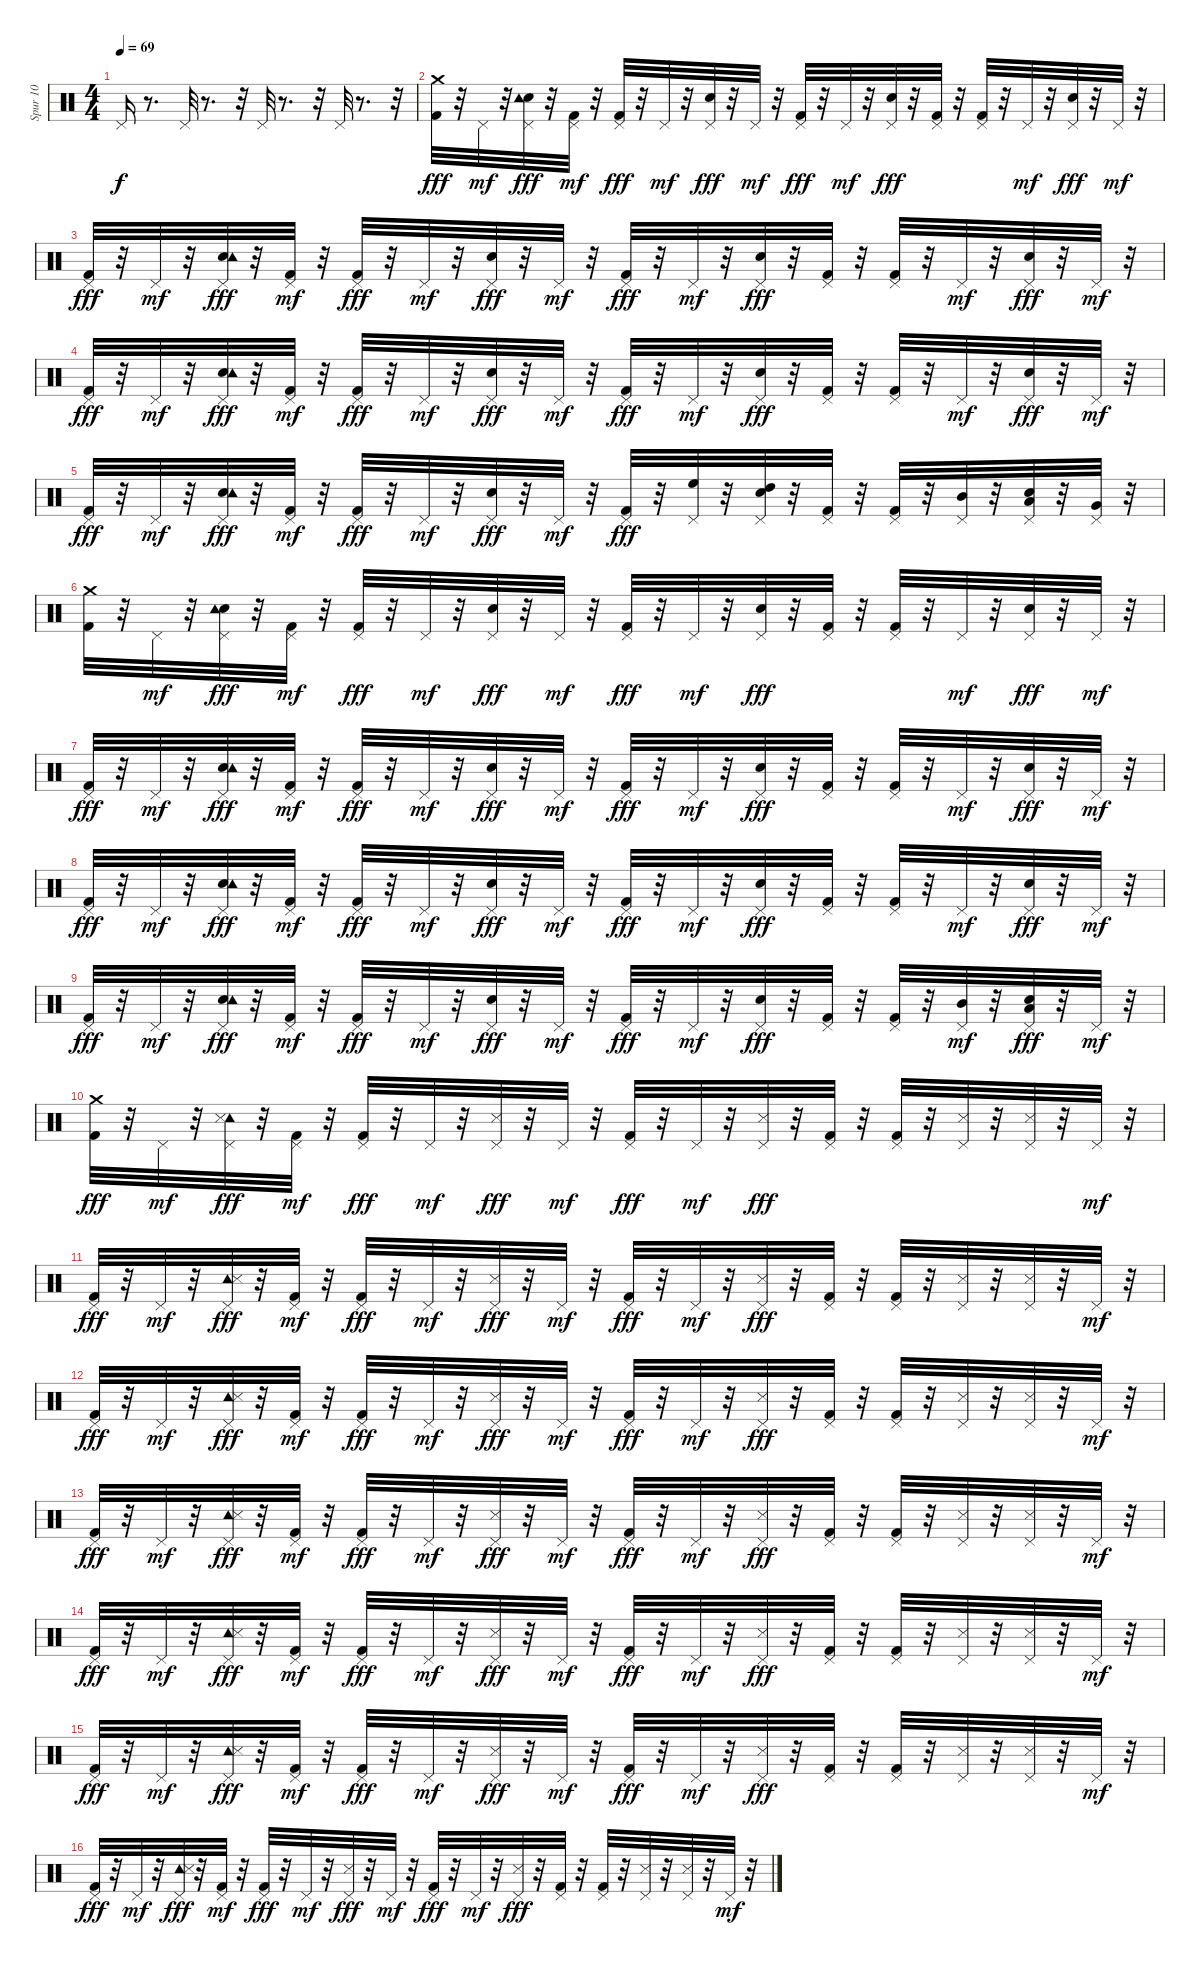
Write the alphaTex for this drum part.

\track ("Spur 10" "Spur 10") {instrument percussion}
\staff {score}
\articulation defaults
\ts (4 4)
\tempo 69
\clef neutral
\ks c "Pedal Hi-Hat (hit)".16{dy f}
r.8{d} "Pedal Hi-Hat (hit)".32 r.8{d} r.32 "Pedal Hi-Hat (hit)".32 r.8{d} r.32 "Pedal Hi-Hat (hit)".32 r.8{d} r.32 |
("Kick (hit) 2" "Crash medium (hit)").32{dy fff} r.32 "Pedal Hi-Hat (hit)".32{dy mf} r.32 ("Snare (hit) 2" "Pedal Hi-Hat (hit)" "Tambourine (hit)").32{dy fff} r.32 ("Kick (hit) 2" "Pedal Hi-Hat (hit)").32{dy mf} r.32 ("Kick (hit) 2" "Pedal Hi-Hat (hit)").32{dy fff} r.32 "Pedal Hi-Hat (hit)".32{dy mf} r.32 ("Snare (hit) 2" "Pedal Hi-Hat (hit)").32{dy fff} r.32 "Pedal Hi-Hat (hit)".32{dy mf} r.32 ("Kick (hit) 2" "Pedal Hi-Hat (hit)").32{dy fff} r.32 "Pedal Hi-Hat (hit)".32{dy mf} r.32 ("Snare (hit) 2" "Pedal Hi-Hat (hit)").32{dy fff} r.32 ("Kick (hit) 2" "Pedal Hi-Hat (hit)").32 r.32 ("Kick (hit) 2" "Pedal Hi-Hat (hit)").32 r.32 "Pedal Hi-Hat (hit)".32{dy mf} r.32 ("Snare (hit) 2" "Pedal Hi-Hat (hit)").32{dy fff} r.32 "Pedal Hi-Hat (hit)".32{dy mf} r.32 |
("Kick (hit) 2" "Pedal Hi-Hat (hit)").32{dy fff} r.32 "Pedal Hi-Hat (hit)".32{dy mf} r.32 ("Snare (hit) 2" "Pedal Hi-Hat (hit)" "Tambourine (hit)").32{dy fff} r.32 ("Kick (hit) 2" "Pedal Hi-Hat (hit)").32{dy mf} r.32 ("Kick (hit) 2" "Pedal Hi-Hat (hit)").32{dy fff} r.32 "Pedal Hi-Hat (hit)".32{dy mf} r.32 ("Snare (hit) 2" "Pedal Hi-Hat (hit)").32{dy fff} r.32 "Pedal Hi-Hat (hit)".32{dy mf} r.32 ("Kick (hit) 2" "Pedal Hi-Hat (hit)").32{dy fff} r.32 "Pedal Hi-Hat (hit)".32{dy mf} r.32 ("Snare (hit) 2" "Pedal Hi-Hat (hit)").32{dy fff} r.32 ("Kick (hit) 2" "Pedal Hi-Hat (hit)").32 r.32 ("Kick (hit) 2" "Pedal Hi-Hat (hit)").32 r.32 "Pedal Hi-Hat (hit)".32{dy mf} r.32 ("Snare (hit) 2" "Pedal Hi-Hat (hit)").32{dy fff} r.32 "Pedal Hi-Hat (hit)".32{dy mf} r.32 |
("Kick (hit) 2" "Pedal Hi-Hat (hit)").32{dy fff} r.32 "Pedal Hi-Hat (hit)".32{dy mf} r.32 ("Snare (hit) 2" "Pedal Hi-Hat (hit)" "Tambourine (hit)").32{dy fff} r.32 ("Kick (hit) 2" "Pedal Hi-Hat (hit)").32{dy mf} r.32 ("Kick (hit) 2" "Pedal Hi-Hat (hit)").32{dy fff} r.32 "Pedal Hi-Hat (hit)".32{dy mf} r.32 ("Snare (hit) 2" "Pedal Hi-Hat (hit)").32{dy fff} r.32 "Pedal Hi-Hat (hit)".32{dy mf} r.32 ("Kick (hit) 2" "Pedal Hi-Hat (hit)").32{dy fff} r.32 "Pedal Hi-Hat (hit)".32{dy mf} r.32 ("Snare (hit) 2" "Pedal Hi-Hat (hit)").32{dy fff} r.32 ("Kick (hit) 2" "Pedal Hi-Hat (hit)").32 r.32 ("Kick (hit) 2" "Pedal Hi-Hat (hit)").32 r.32 "Pedal Hi-Hat (hit)".32{dy mf} r.32 ("Snare (hit) 2" "Pedal Hi-Hat (hit)").32{dy fff} r.32 "Pedal Hi-Hat (hit)".32{dy mf} r.32 |
("Kick (hit) 2" "Pedal Hi-Hat (hit)").32{dy fff} r.32 "Pedal Hi-Hat (hit)".32{dy mf} r.32 ("Snare (hit) 2" "Pedal Hi-Hat (hit)" "Tambourine (hit)").32{dy fff} r.32 ("Kick (hit) 2" "Pedal Hi-Hat (hit)").32{dy mf} r.32 ("Kick (hit) 2" "Pedal Hi-Hat (hit)").32{dy fff} r.32 "Pedal Hi-Hat (hit)".32{dy mf} r.32 ("Snare (hit) 2" "Pedal Hi-Hat (hit)").32{dy fff} r.32 "Pedal Hi-Hat (hit)".32{dy mf} r.32 ("Kick (hit) 2" "Pedal Hi-Hat (hit)").32{dy fff} r.32 ("Pedal Hi-Hat (hit)" "High Floor Tom (hit)").32 r.32 ("Snare (hit) 2" "Pedal Hi-Hat (hit)" "High Tom (hit)").32 r.32 ("Kick (hit) 2" "Pedal Hi-Hat (hit)").32 r.32 ("Kick (hit) 2" "Pedal Hi-Hat (hit)").32 r.32 ("Pedal Hi-Hat (hit)" "Mid Tom (hit)").32 r.32 ("Snare (hit) 2" "Pedal Hi-Hat (hit)" "Low Tom (hit)").32 r.32 ("Pedal Hi-Hat (hit)" "Very Low Tom (hit)").32 r.32 |
("Kick (hit) 2" "Crash medium (hit)").32 r.32 "Pedal Hi-Hat (hit)".32{dy mf} r.32 ("Snare (hit) 2" "Pedal Hi-Hat (hit)" "Tambourine (hit)").32{dy fff} r.32 ("Kick (hit) 2" "Pedal Hi-Hat (hit)").32{dy mf} r.32 ("Kick (hit) 2" "Pedal Hi-Hat (hit)").32{dy fff} r.32 "Pedal Hi-Hat (hit)".32{dy mf} r.32 ("Snare (hit) 2" "Pedal Hi-Hat (hit)").32{dy fff} r.32 "Pedal Hi-Hat (hit)".32{dy mf} r.32 ("Kick (hit) 2" "Pedal Hi-Hat (hit)").32{dy fff} r.32 "Pedal Hi-Hat (hit)".32{dy mf} r.32 ("Snare (hit) 2" "Pedal Hi-Hat (hit)").32{dy fff} r.32 ("Kick (hit) 2" "Pedal Hi-Hat (hit)").32 r.32 ("Kick (hit) 2" "Pedal Hi-Hat (hit)").32 r.32 "Pedal Hi-Hat (hit)".32{dy mf} r.32 ("Snare (hit) 2" "Pedal Hi-Hat (hit)").32{dy fff} r.32 "Pedal Hi-Hat (hit)".32{dy mf} r.32 |
("Kick (hit) 2" "Pedal Hi-Hat (hit)").32{dy fff} r.32 "Pedal Hi-Hat (hit)".32{dy mf} r.32 ("Snare (hit) 2" "Pedal Hi-Hat (hit)" "Tambourine (hit)").32{dy fff} r.32 ("Kick (hit) 2" "Pedal Hi-Hat (hit)").32{dy mf} r.32 ("Kick (hit) 2" "Pedal Hi-Hat (hit)").32{dy fff} r.32 "Pedal Hi-Hat (hit)".32{dy mf} r.32 ("Snare (hit) 2" "Pedal Hi-Hat (hit)").32{dy fff} r.32 "Pedal Hi-Hat (hit)".32{dy mf} r.32 ("Kick (hit) 2" "Pedal Hi-Hat (hit)").32{dy fff} r.32 "Pedal Hi-Hat (hit)".32{dy mf} r.32 ("Snare (hit) 2" "Pedal Hi-Hat (hit)").32{dy fff} r.32 ("Kick (hit) 2" "Pedal Hi-Hat (hit)").32 r.32 ("Kick (hit) 2" "Pedal Hi-Hat (hit)").32 r.32 "Pedal Hi-Hat (hit)".32{dy mf} r.32 ("Snare (hit) 2" "Pedal Hi-Hat (hit)").32{dy fff} r.32 "Pedal Hi-Hat (hit)".32{dy mf} r.32 |
("Kick (hit) 2" "Pedal Hi-Hat (hit)").32{dy fff} r.32 "Pedal Hi-Hat (hit)".32{dy mf} r.32 ("Snare (hit) 2" "Pedal Hi-Hat (hit)" "Tambourine (hit)").32{dy fff} r.32 ("Kick (hit) 2" "Pedal Hi-Hat (hit)").32{dy mf} r.32 ("Kick (hit) 2" "Pedal Hi-Hat (hit)").32{dy fff} r.32 "Pedal Hi-Hat (hit)".32{dy mf} r.32 ("Snare (hit) 2" "Pedal Hi-Hat (hit)").32{dy fff} r.32 "Pedal Hi-Hat (hit)".32{dy mf} r.32 ("Kick (hit) 2" "Pedal Hi-Hat (hit)").32{dy fff} r.32 "Pedal Hi-Hat (hit)".32{dy mf} r.32 ("Snare (hit) 2" "Pedal Hi-Hat (hit)").32{dy fff} r.32 ("Kick (hit) 2" "Pedal Hi-Hat (hit)").32 r.32 ("Kick (hit) 2" "Pedal Hi-Hat (hit)").32 r.32 "Pedal Hi-Hat (hit)".32{dy mf} r.32 ("Snare (hit) 2" "Pedal Hi-Hat (hit)").32{dy fff} r.32 "Pedal Hi-Hat (hit)".32{dy mf} r.32 |
("Kick (hit) 2" "Pedal Hi-Hat (hit)").32{dy fff} r.32 "Pedal Hi-Hat (hit)".32{dy mf} r.32 ("Snare (hit) 2" "Pedal Hi-Hat (hit)" "Tambourine (hit)").32{dy fff} r.32 ("Kick (hit) 2" "Pedal Hi-Hat (hit)").32{dy mf} r.32 ("Kick (hit) 2" "Pedal Hi-Hat (hit)").32{dy fff} r.32 "Pedal Hi-Hat (hit)".32{dy mf} r.32 ("Snare (hit) 2" "Pedal Hi-Hat (hit)").32{dy fff} r.32 "Pedal Hi-Hat (hit)".32{dy mf} r.32 ("Kick (hit) 2" "Pedal Hi-Hat (hit)").32{dy fff} r.32 "Pedal Hi-Hat (hit)".32{dy mf} r.32 ("Snare (hit) 2" "Pedal Hi-Hat (hit)").32{dy fff} r.32 ("Kick (hit) 2" "Pedal Hi-Hat (hit)").32 r.32 ("Kick (hit) 2" "Pedal Hi-Hat (hit)").32 r.32 ("Mid Tom (hit)" "Pedal Hi-Hat (hit)").32{dy mf} r.32 ("Low Tom (hit)" "Snare (hit) 2" "Pedal Hi-Hat (hit)").32{dy fff} r.32 "Pedal Hi-Hat (hit)".32{dy mf} r.32 |
("Kick (hit) 2" "Crash medium (hit)").32{dy fff} r.32 "Pedal Hi-Hat (hit)".32{dy mf} r.32 ("Pedal Hi-Hat (hit)" "Tambourine (hit)" "Snare (side stick) 3").32{dy fff} r.32 ("Kick (hit) 2" "Pedal Hi-Hat (hit)").32{dy mf} r.32 ("Kick (hit) 2" "Pedal Hi-Hat (hit)").32{dy fff} r.32 "Pedal Hi-Hat (hit)".32{dy mf} r.32 ("Pedal Hi-Hat (hit)" "Snare (side stick) 3").32{dy fff} r.32 "Pedal Hi-Hat (hit)".32{dy mf} r.32 ("Kick (hit) 2" "Pedal Hi-Hat (hit)").32{dy fff} r.32 "Pedal Hi-Hat (hit)".32{dy mf} r.32 ("Pedal Hi-Hat (hit)" "Snare (side stick) 3").32{dy fff} r.32 ("Kick (hit) 2" "Pedal Hi-Hat (hit)").32 r.32 ("Kick (hit) 2" "Pedal Hi-Hat (hit)").32 r.32 ("Pedal Hi-Hat (hit)" "Snare (side stick) 3").32 r.32 ("Pedal Hi-Hat (hit)" "Snare (side stick) 3").32 r.32 "Pedal Hi-Hat (hit)".32{dy mf} r.32 |
("Kick (hit) 2" "Pedal Hi-Hat (hit)").32{dy fff} r.32 "Pedal Hi-Hat (hit)".32{dy mf} r.32 ("Pedal Hi-Hat (hit)" "Tambourine (hit)" "Snare (side stick) 3").32{dy fff} r.32 ("Kick (hit) 2" "Pedal Hi-Hat (hit)").32{dy mf} r.32 ("Kick (hit) 2" "Pedal Hi-Hat (hit)").32{dy fff} r.32 "Pedal Hi-Hat (hit)".32{dy mf} r.32 ("Pedal Hi-Hat (hit)" "Snare (side stick) 3").32{dy fff} r.32 "Pedal Hi-Hat (hit)".32{dy mf} r.32 ("Kick (hit) 2" "Pedal Hi-Hat (hit)").32{dy fff} r.32 "Pedal Hi-Hat (hit)".32{dy mf} r.32 ("Pedal Hi-Hat (hit)" "Snare (side stick) 3").32{dy fff} r.32 ("Kick (hit) 2" "Pedal Hi-Hat (hit)").32 r.32 ("Kick (hit) 2" "Pedal Hi-Hat (hit)").32 r.32 ("Pedal Hi-Hat (hit)" "Snare (side stick) 3").32 r.32 ("Pedal Hi-Hat (hit)" "Snare (side stick) 3").32 r.32 "Pedal Hi-Hat (hit)".32{dy mf} r.32 |
("Kick (hit) 2" "Pedal Hi-Hat (hit)").32{dy fff} r.32 "Pedal Hi-Hat (hit)".32{dy mf} r.32 ("Pedal Hi-Hat (hit)" "Tambourine (hit)" "Snare (side stick) 3").32{dy fff} r.32 ("Kick (hit) 2" "Pedal Hi-Hat (hit)").32{dy mf} r.32 ("Kick (hit) 2" "Pedal Hi-Hat (hit)").32{dy fff} r.32 "Pedal Hi-Hat (hit)".32{dy mf} r.32 ("Pedal Hi-Hat (hit)" "Snare (side stick) 3").32{dy fff} r.32 "Pedal Hi-Hat (hit)".32{dy mf} r.32 ("Kick (hit) 2" "Pedal Hi-Hat (hit)").32{dy fff} r.32 "Pedal Hi-Hat (hit)".32{dy mf} r.32 ("Pedal Hi-Hat (hit)" "Snare (side stick) 3").32{dy fff} r.32 ("Kick (hit) 2" "Pedal Hi-Hat (hit)").32 r.32 ("Kick (hit) 2" "Pedal Hi-Hat (hit)").32 r.32 ("Pedal Hi-Hat (hit)" "Snare (side stick) 3").32 r.32 ("Pedal Hi-Hat (hit)" "Snare (side stick) 3").32 r.32 "Pedal Hi-Hat (hit)".32{dy mf} r.32 |
("Kick (hit) 2" "Pedal Hi-Hat (hit)").32{dy fff} r.32 "Pedal Hi-Hat (hit)".32{dy mf} r.32 ("Pedal Hi-Hat (hit)" "Tambourine (hit)" "Snare (side stick) 3").32{dy fff} r.32 ("Kick (hit) 2" "Pedal Hi-Hat (hit)").32{dy mf} r.32 ("Kick (hit) 2" "Pedal Hi-Hat (hit)").32{dy fff} r.32 "Pedal Hi-Hat (hit)".32{dy mf} r.32 ("Pedal Hi-Hat (hit)" "Snare (side stick) 3").32{dy fff} r.32 "Pedal Hi-Hat (hit)".32{dy mf} r.32 ("Kick (hit) 2" "Pedal Hi-Hat (hit)").32{dy fff} r.32 "Pedal Hi-Hat (hit)".32{dy mf} r.32 ("Pedal Hi-Hat (hit)" "Snare (side stick) 3").32{dy fff} r.32 ("Kick (hit) 2" "Pedal Hi-Hat (hit)").32 r.32 ("Kick (hit) 2" "Pedal Hi-Hat (hit)").32 r.32 ("Pedal Hi-Hat (hit)" "Snare (side stick) 3").32 r.32 ("Pedal Hi-Hat (hit)" "Snare (side stick) 3").32 r.32 "Pedal Hi-Hat (hit)".32{dy mf} r.32 |
("Kick (hit) 2" "Pedal Hi-Hat (hit)").32{dy fff} r.32 "Pedal Hi-Hat (hit)".32{dy mf} r.32 ("Pedal Hi-Hat (hit)" "Tambourine (hit)" "Snare (side stick) 3").32{dy fff} r.32 ("Kick (hit) 2" "Pedal Hi-Hat (hit)").32{dy mf} r.32 ("Kick (hit) 2" "Pedal Hi-Hat (hit)").32{dy fff} r.32 "Pedal Hi-Hat (hit)".32{dy mf} r.32 ("Pedal Hi-Hat (hit)" "Snare (side stick) 3").32{dy fff} r.32 "Pedal Hi-Hat (hit)".32{dy mf} r.32 ("Kick (hit) 2" "Pedal Hi-Hat (hit)").32{dy fff} r.32 "Pedal Hi-Hat (hit)".32{dy mf} r.32 ("Pedal Hi-Hat (hit)" "Snare (side stick) 3").32{dy fff} r.32 ("Kick (hit) 2" "Pedal Hi-Hat (hit)").32 r.32 ("Kick (hit) 2" "Pedal Hi-Hat (hit)").32 r.32 ("Pedal Hi-Hat (hit)" "Snare (side stick) 3").32 r.32 ("Pedal Hi-Hat (hit)" "Snare (side stick) 3").32 r.32 "Pedal Hi-Hat (hit)".32{dy mf} r.32 |
("Kick (hit) 2" "Pedal Hi-Hat (hit)").32{dy fff} r.32 "Pedal Hi-Hat (hit)".32{dy mf} r.32 ("Pedal Hi-Hat (hit)" "Tambourine (hit)" "Snare (side stick) 3").32{dy fff} r.32 ("Kick (hit) 2" "Pedal Hi-Hat (hit)").32{dy mf} r.32 ("Kick (hit) 2" "Pedal Hi-Hat (hit)").32{dy fff} r.32 "Pedal Hi-Hat (hit)".32{dy mf} r.32 ("Pedal Hi-Hat (hit)" "Snare (side stick) 3").32{dy fff} r.32 "Pedal Hi-Hat (hit)".32{dy mf} r.32 ("Kick (hit) 2" "Pedal Hi-Hat (hit)").32{dy fff} r.32 "Pedal Hi-Hat (hit)".32{dy mf} r.32 ("Pedal Hi-Hat (hit)" "Snare (side stick) 3").32{dy fff} r.32 ("Kick (hit) 2" "Pedal Hi-Hat (hit)").32 r.32 ("Kick (hit) 2" "Pedal Hi-Hat (hit)").32 r.32 ("Pedal Hi-Hat (hit)" "Snare (side stick) 3").32 r.32 ("Pedal Hi-Hat (hit)" "Snare (side stick) 3").32 r.32 "Pedal Hi-Hat (hit)".32{dy mf} r.32 |
("Kick (hit) 2" "Pedal Hi-Hat (hit)").32{dy fff} r.32 "Pedal Hi-Hat (hit)".32{dy mf} r.32 ("Pedal Hi-Hat (hit)" "Tambourine (hit)" "Snare (side stick) 3").32{dy fff} r.32 ("Kick (hit) 2" "Pedal Hi-Hat (hit)").32{dy mf} r.32 ("Kick (hit) 2" "Pedal Hi-Hat (hit)").32{dy fff} r.32 "Pedal Hi-Hat (hit)".32{dy mf} r.32 ("Pedal Hi-Hat (hit)" "Snare (side stick) 3").32{dy fff} r.32 "Pedal Hi-Hat (hit)".32{dy mf} r.32 ("Kick (hit) 2" "Pedal Hi-Hat (hit)").32{dy fff} r.32 "Pedal Hi-Hat (hit)".32{dy mf} r.32 ("Pedal Hi-Hat (hit)" "Snare (side stick) 3").32{dy fff} r.32 ("Kick (hit) 2" "Pedal Hi-Hat (hit)").32 r.32 ("Kick (hit) 2" "Pedal Hi-Hat (hit)").32 r.32 ("Pedal Hi-Hat (hit)" "Snare (side stick) 3").32 r.32 ("Pedal Hi-Hat (hit)" "Snare (side stick) 3").32 r.32 "Pedal Hi-Hat (hit)".32{dy mf} r.32
